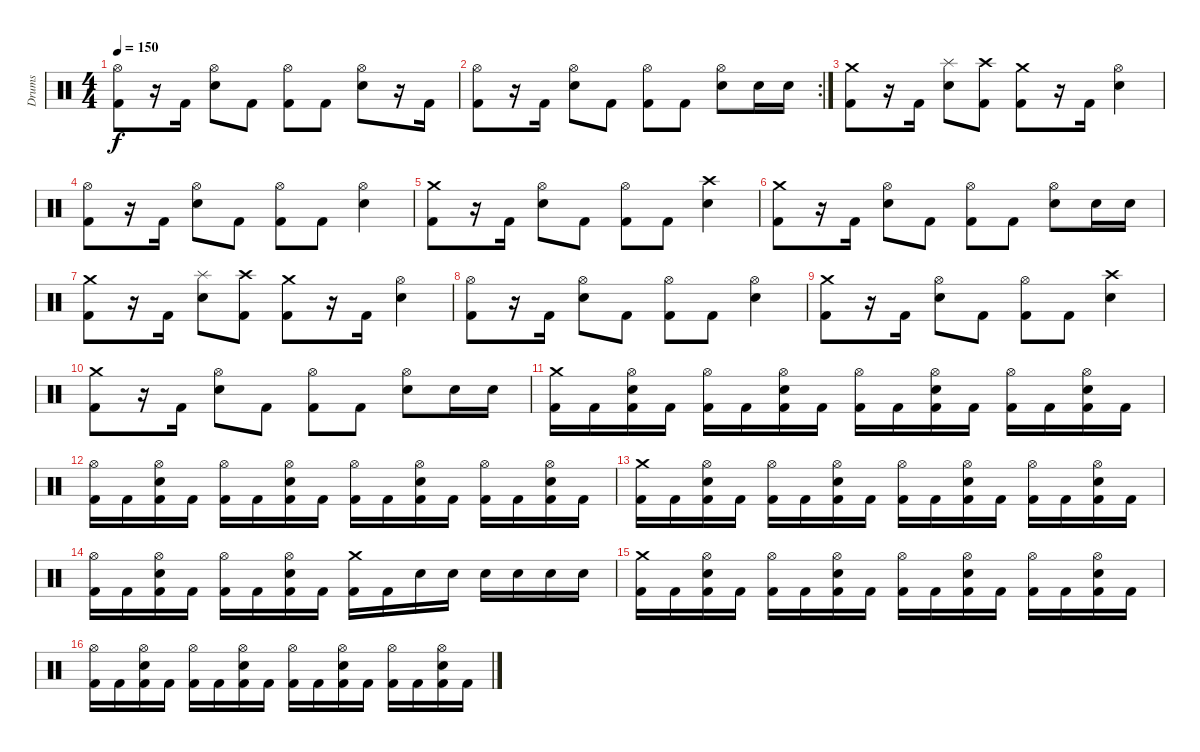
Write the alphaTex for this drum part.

\track ("Drums" "Drums") {instrument percussion}
\staff {score}
\articulation defaults
\ts (4 4)
\tempo 150
\clef neutral
\ks c
("Hi-Hat (open)" "Kick (hit) 2").8{dy f} r.16 "Kick (hit) 2".16 ("Hi-Hat (open)" "Electric Snare (hit)").8 "Kick (hit) 2".8 ("Hi-Hat (open)" "Kick (hit) 2").8 "Kick (hit) 2".8 ("Hi-Hat (open)" "Electric Snare (hit)").8 r.16 "Kick (hit) 2".16 |
\rc 2
("Hi-Hat (open)" "Kick (hit) 2").8 r.16 "Kick (hit) 2".16 ("Hi-Hat (open)" "Electric Snare (hit)").8 "Kick (hit) 2".8 ("Hi-Hat (open)" "Kick (hit) 2").8 "Kick (hit) 2".8 ("Hi-Hat (open)" "Electric Snare (hit)").8 "Electric Snare (hit)".16 "Electric Snare (hit)".16 |
("Crash medium (hit)" "Kick (hit) 2").8 r.16 "Kick (hit) 2".16 ("Splash (hit)" "Electric Snare (hit)").8 ("Crash high (hit)" "Kick (hit) 2").8 ("Crash medium (hit)" "Kick (hit) 2").8 r.16 "Kick (hit) 2".16 ("Hi-Hat (open)" "Electric Snare (hit)").4 |
("Hi-Hat (open)" "Kick (hit) 2").8 r.16 "Kick (hit) 2".16 ("Hi-Hat (open)" "Electric Snare (hit)").8 "Kick (hit) 2".8 ("Hi-Hat (open)" "Kick (hit) 2").8 "Kick (hit) 2".8 ("Hi-Hat (open)" "Electric Snare (hit)").4 |
("Crash medium (hit)" "Kick (hit) 2").8 r.16 "Kick (hit) 2".16 ("Hi-Hat (open)" "Electric Snare (hit)").8 "Kick (hit) 2".8 ("Hi-Hat (open)" "Kick (hit) 2").8 "Kick (hit) 2".8 ("Crash high (hit)" "Electric Snare (hit)").4 |
("Crash medium (hit)" "Kick (hit) 2").8 r.16 "Kick (hit) 2".16 ("Hi-Hat (open)" "Electric Snare (hit)").8 "Kick (hit) 2".8 ("Hi-Hat (open)" "Kick (hit) 2").8 "Kick (hit) 2".8 ("Hi-Hat (open)" "Electric Snare (hit)").8 "Electric Snare (hit)".16 "Electric Snare (hit)".16 |
("Crash medium (hit)" "Kick (hit) 2").8 r.16 "Kick (hit) 2".16 ("Splash (hit)" "Electric Snare (hit)").8 ("Crash high (hit)" "Kick (hit) 2").8 ("Crash medium (hit)" "Kick (hit) 2").8 r.16 "Kick (hit) 2".16 ("Hi-Hat (open)" "Electric Snare (hit)").4 |
("Hi-Hat (open)" "Kick (hit) 2").8 r.16 "Kick (hit) 2".16 ("Hi-Hat (open)" "Electric Snare (hit)").8 "Kick (hit) 2".8 ("Hi-Hat (open)" "Kick (hit) 2").8 "Kick (hit) 2".8 ("Hi-Hat (open)" "Electric Snare (hit)").4 |
("Crash medium (hit)" "Kick (hit) 2").8 r.16 "Kick (hit) 2".16 ("Hi-Hat (open)" "Electric Snare (hit)").8 "Kick (hit) 2".8 ("Hi-Hat (open)" "Kick (hit) 2").8 "Kick (hit) 2".8 ("Crash high (hit)" "Electric Snare (hit)").4 |
("Crash medium (hit)" "Kick (hit) 2").8 r.16 "Kick (hit) 2".16 ("Hi-Hat (open)" "Electric Snare (hit)").8 "Kick (hit) 2".8 ("Hi-Hat (open)" "Kick (hit) 2").8 "Kick (hit) 2".8 ("Hi-Hat (open)" "Electric Snare (hit)").8 "Electric Snare (hit)".16 "Electric Snare (hit)".16 |
("Crash medium (hit)" "Kick (hit) 2").16 "Kick (hit) 2".16 ("Hi-Hat (open)" "Electric Snare (hit)" "Kick (hit) 2").16 "Kick (hit) 2".16 ("Hi-Hat (open)" "Kick (hit) 2").16 "Kick (hit) 2".16 ("Hi-Hat (open)" "Electric Snare (hit)" "Kick (hit) 2").16 "Kick (hit) 2".16 ("Hi-Hat (open)" "Kick (hit) 2").16 "Kick (hit) 2".16 ("Hi-Hat (open)" "Electric Snare (hit)" "Kick (hit) 2").16 "Kick (hit) 2".16 ("Hi-Hat (open)" "Kick (hit) 2").16 "Kick (hit) 2".16 ("Hi-Hat (open)" "Electric Snare (hit)" "Kick (hit) 2").16 "Kick (hit) 2".16 |
("Hi-Hat (open)" "Kick (hit) 2").16 "Kick (hit) 2".16 ("Hi-Hat (open)" "Electric Snare (hit)" "Kick (hit) 2").16 "Kick (hit) 2".16 ("Hi-Hat (open)" "Kick (hit) 2").16 "Kick (hit) 2".16 ("Hi-Hat (open)" "Electric Snare (hit)" "Kick (hit) 2").16 "Kick (hit) 2".16 ("Hi-Hat (open)" "Kick (hit) 2").16 "Kick (hit) 2".16 ("Hi-Hat (open)" "Electric Snare (hit)" "Kick (hit) 2").16 "Kick (hit) 2".16 ("Hi-Hat (open)" "Kick (hit) 2").16 "Kick (hit) 2".16 ("Hi-Hat (open)" "Electric Snare (hit)" "Kick (hit) 2").16 "Kick (hit) 2".16 |
("Crash medium (hit)" "Kick (hit) 2").16 "Kick (hit) 2".16 ("Hi-Hat (open)" "Electric Snare (hit)" "Kick (hit) 2").16 "Kick (hit) 2".16 ("Hi-Hat (open)" "Kick (hit) 2").16 "Kick (hit) 2".16 ("Hi-Hat (open)" "Electric Snare (hit)" "Kick (hit) 2").16 "Kick (hit) 2".16 ("Hi-Hat (open)" "Kick (hit) 2").16 "Kick (hit) 2".16 ("Hi-Hat (open)" "Electric Snare (hit)" "Kick (hit) 2").16 "Kick (hit) 2".16 ("Hi-Hat (open)" "Kick (hit) 2").16 "Kick (hit) 2".16 ("Hi-Hat (open)" "Electric Snare (hit)" "Kick (hit) 2").16 "Kick (hit) 2".16 |
("Hi-Hat (open)" "Kick (hit) 2").16 "Kick (hit) 2".16 ("Hi-Hat (open)" "Electric Snare (hit)" "Kick (hit) 2").16 "Kick (hit) 2".16 ("Hi-Hat (open)" "Kick (hit) 2").16 "Kick (hit) 2".16 ("Hi-Hat (open)" "Electric Snare (hit)" "Kick (hit) 2").16 "Kick (hit) 2".16 ("Crash medium (hit)" "Kick (hit) 2").16 "Kick (hit) 2".16 "Electric Snare (hit)".16 "Electric Snare (hit)".16 "Electric Snare (hit)".16 "Electric Snare (hit)".16 "Electric Snare (hit)".16 "Electric Snare (hit)".16 |
("Crash medium (hit)" "Kick (hit) 2").16 "Kick (hit) 2".16 ("Hi-Hat (open)" "Electric Snare (hit)" "Kick (hit) 2").16 "Kick (hit) 2".16 ("Hi-Hat (open)" "Kick (hit) 2").16 "Kick (hit) 2".16 ("Hi-Hat (open)" "Electric Snare (hit)" "Kick (hit) 2").16 "Kick (hit) 2".16 ("Hi-Hat (open)" "Kick (hit) 2").16 "Kick (hit) 2".16 ("Hi-Hat (open)" "Electric Snare (hit)" "Kick (hit) 2").16 "Kick (hit) 2".16 ("Hi-Hat (open)" "Kick (hit) 2").16 "Kick (hit) 2".16 ("Hi-Hat (open)" "Electric Snare (hit)" "Kick (hit) 2").16 "Kick (hit) 2".16 |
("Hi-Hat (open)" "Kick (hit) 2").16 "Kick (hit) 2".16 ("Hi-Hat (open)" "Electric Snare (hit)" "Kick (hit) 2").16 "Kick (hit) 2".16 ("Hi-Hat (open)" "Kick (hit) 2").16 "Kick (hit) 2".16 ("Hi-Hat (open)" "Electric Snare (hit)" "Kick (hit) 2").16 "Kick (hit) 2".16 ("Hi-Hat (open)" "Kick (hit) 2").16 "Kick (hit) 2".16 ("Hi-Hat (open)" "Electric Snare (hit)" "Kick (hit) 2").16 "Kick (hit) 2".16 ("Hi-Hat (open)" "Kick (hit) 2").16 "Kick (hit) 2".16 ("Hi-Hat (open)" "Electric Snare (hit)" "Kick (hit) 2").16 "Kick (hit) 2".16
